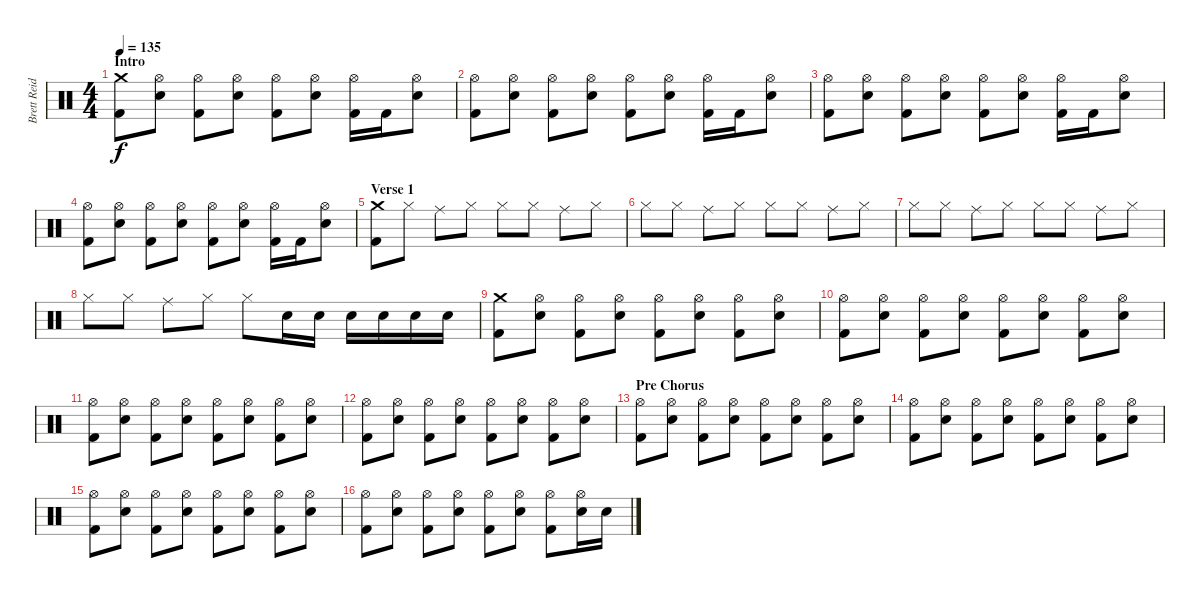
\track ("Brett Reid" "Brett Reid") {instrument percussion}
\staff {score}
\articulation defaults
\ts (4 4)
\section ("" "Intro")
\tempo 135
\clef neutral
\ks c
("Crash medium (hit)" "Kick (hit) 2").8{dy f} ("Hi-Hat (open)" "Electric Snare (hit)").8 ("Hi-Hat (open)" "Kick (hit) 2").8 ("Hi-Hat (open)" "Electric Snare (hit)").8 ("Hi-Hat (open)" "Kick (hit) 2").8 ("Hi-Hat (open)" "Electric Snare (hit)").8 ("Hi-Hat (open)" "Kick (hit) 2").16 "Kick (hit) 2".16 ("Hi-Hat (open)" "Electric Snare (hit)").8 |
("Hi-Hat (open)" "Kick (hit) 2").8 ("Hi-Hat (open)" "Electric Snare (hit)").8 ("Hi-Hat (open)" "Kick (hit) 2").8 ("Hi-Hat (open)" "Electric Snare (hit)").8 ("Hi-Hat (open)" "Kick (hit) 2").8 ("Hi-Hat (open)" "Electric Snare (hit)").8 ("Hi-Hat (open)" "Kick (hit) 2").16 "Kick (hit) 2".16 ("Hi-Hat (open)" "Electric Snare (hit)").8 |
("Hi-Hat (open)" "Kick (hit) 2").8 ("Hi-Hat (open)" "Electric Snare (hit)").8 ("Hi-Hat (open)" "Kick (hit) 2").8 ("Hi-Hat (open)" "Electric Snare (hit)").8 ("Hi-Hat (open)" "Kick (hit) 2").8 ("Hi-Hat (open)" "Electric Snare (hit)").8 ("Hi-Hat (open)" "Kick (hit) 2").16 "Kick (hit) 2".16 ("Hi-Hat (open)" "Electric Snare (hit)").8 |
("Hi-Hat (open)" "Kick (hit) 2").8 ("Hi-Hat (open)" "Electric Snare (hit)").8 ("Hi-Hat (open)" "Kick (hit) 2").8 ("Hi-Hat (open)" "Electric Snare (hit)").8 ("Hi-Hat (open)" "Kick (hit) 2").8 ("Hi-Hat (open)" "Electric Snare (hit)").8 ("Hi-Hat (open)" "Kick (hit) 2").16 "Kick (hit) 2".16 ("Hi-Hat (open)" "Electric Snare (hit)").8 |
\section ("" "Verse 1")
("Crash medium (hit)" "Kick (hit) 2").8 "Hi-Hat (closed)".8 "Ride (middle)".8 "Hi-Hat (closed)".8 "Hi-Hat (closed)".8 "Hi-Hat (closed)".8 "Ride (middle)".8 "Hi-Hat (closed)".8 |
"Hi-Hat (closed)".8 "Hi-Hat (closed)".8 "Ride (middle)".8 "Hi-Hat (closed)".8 "Hi-Hat (closed)".8 "Hi-Hat (closed)".8 "Ride (middle)".8 "Hi-Hat (closed)".8 |
"Hi-Hat (closed)".8 "Hi-Hat (closed)".8 "Ride (middle)".8 "Hi-Hat (closed)".8 "Hi-Hat (closed)".8 "Hi-Hat (closed)".8 "Ride (middle)".8 "Hi-Hat (closed)".8 |
"Hi-Hat (closed)".8 "Hi-Hat (closed)".8 "Ride (middle)".8 "Hi-Hat (closed)".8 "Hi-Hat (closed)".8 "Electric Snare (hit)".16 "Electric Snare (hit)".16 "Electric Snare (hit)".16 "Electric Snare (hit)".16 "Electric Snare (hit)".16 "Electric Snare (hit)".16 |
("Crash medium (hit)" "Kick (hit) 2").8 ("Hi-Hat (open)" "Electric Snare (hit)").8 ("Hi-Hat (open)" "Kick (hit) 2").8 ("Hi-Hat (open)" "Electric Snare (hit)").8 ("Hi-Hat (open)" "Kick (hit) 2").8 ("Hi-Hat (open)" "Electric Snare (hit)").8 ("Hi-Hat (open)" "Kick (hit) 2").8 ("Hi-Hat (open)" "Electric Snare (hit)").8 |
("Hi-Hat (open)" "Kick (hit) 2").8 ("Hi-Hat (open)" "Electric Snare (hit)").8 ("Hi-Hat (open)" "Kick (hit) 2").8 ("Hi-Hat (open)" "Electric Snare (hit)").8 ("Hi-Hat (open)" "Kick (hit) 2").8 ("Hi-Hat (open)" "Electric Snare (hit)").8 ("Hi-Hat (open)" "Kick (hit) 2").8 ("Hi-Hat (open)" "Electric Snare (hit)").8 |
("Hi-Hat (open)" "Kick (hit) 2").8 ("Hi-Hat (open)" "Electric Snare (hit)").8 ("Hi-Hat (open)" "Kick (hit) 2").8 ("Hi-Hat (open)" "Electric Snare (hit)").8 ("Hi-Hat (open)" "Kick (hit) 2").8 ("Hi-Hat (open)" "Electric Snare (hit)").8 ("Hi-Hat (open)" "Kick (hit) 2").8 ("Hi-Hat (open)" "Electric Snare (hit)").8 |
("Hi-Hat (open)" "Kick (hit) 2").8 ("Hi-Hat (open)" "Electric Snare (hit)").8 ("Hi-Hat (open)" "Kick (hit) 2").8 ("Hi-Hat (open)" "Electric Snare (hit)").8 ("Hi-Hat (open)" "Kick (hit) 2").8 ("Hi-Hat (open)" "Electric Snare (hit)").8 ("Hi-Hat (open)" "Kick (hit) 2").8 ("Hi-Hat (open)" "Electric Snare (hit)").8 |
\section ("" "Pre Chorus")
("Hi-Hat (open)" "Kick (hit) 2").8 ("Hi-Hat (open)" "Electric Snare (hit)").8 ("Hi-Hat (open)" "Kick (hit) 2").8 ("Hi-Hat (open)" "Electric Snare (hit)").8 ("Hi-Hat (open)" "Kick (hit) 2").8 ("Hi-Hat (open)" "Electric Snare (hit)").8 ("Hi-Hat (open)" "Kick (hit) 2").8 ("Hi-Hat (open)" "Electric Snare (hit)").8 |
("Hi-Hat (open)" "Kick (hit) 2").8 ("Hi-Hat (open)" "Electric Snare (hit)").8 ("Hi-Hat (open)" "Kick (hit) 2").8 ("Hi-Hat (open)" "Electric Snare (hit)").8 ("Hi-Hat (open)" "Kick (hit) 2").8 ("Hi-Hat (open)" "Electric Snare (hit)").8 ("Hi-Hat (open)" "Kick (hit) 2").8 ("Hi-Hat (open)" "Electric Snare (hit)").8 |
("Hi-Hat (open)" "Kick (hit) 2").8 ("Hi-Hat (open)" "Electric Snare (hit)").8 ("Hi-Hat (open)" "Kick (hit) 2").8 ("Hi-Hat (open)" "Electric Snare (hit)").8 ("Hi-Hat (open)" "Kick (hit) 2").8 ("Hi-Hat (open)" "Electric Snare (hit)").8 ("Hi-Hat (open)" "Kick (hit) 2").8 ("Hi-Hat (open)" "Electric Snare (hit)").8 |
("Hi-Hat (open)" "Kick (hit) 2").8 ("Hi-Hat (open)" "Electric Snare (hit)").8 ("Hi-Hat (open)" "Kick (hit) 2").8 ("Hi-Hat (open)" "Electric Snare (hit)").8 ("Hi-Hat (open)" "Kick (hit) 2").8 ("Hi-Hat (open)" "Electric Snare (hit)").8 ("Hi-Hat (open)" "Kick (hit) 2").8 ("Hi-Hat (open)" "Electric Snare (hit)").16 "Electric Snare (hit)".16
